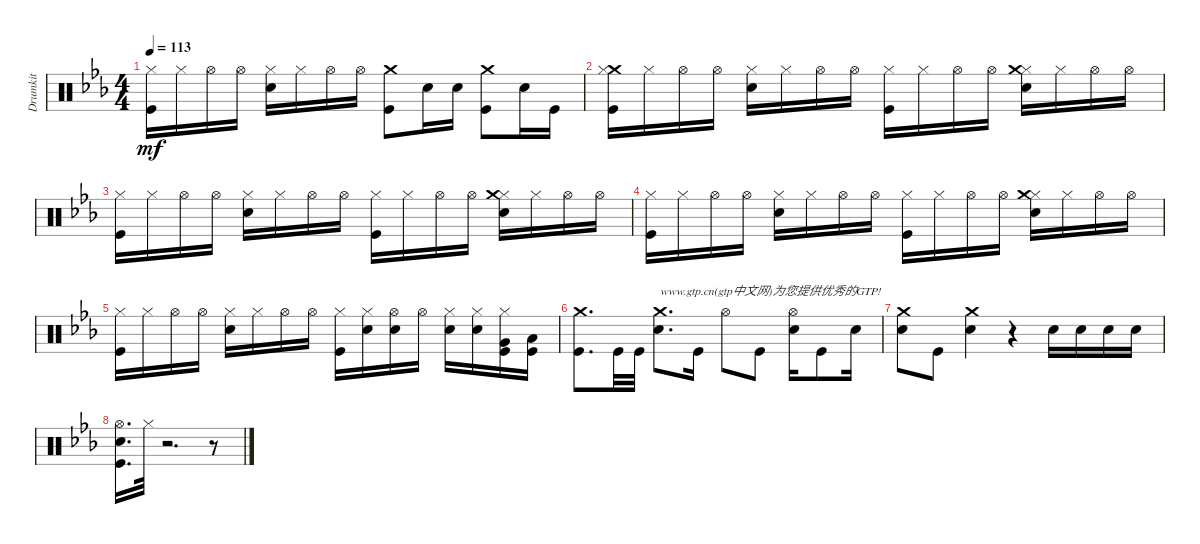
\track ("Drumkit" "Drumkit") {instrument percussion}
\staff {score}
\articulation defaults
\ts (4 4)
\tempo 113
\clef neutral
\ks eb
("Hi-Hat (closed)" "Kick (hit)").16{dy mf} "Hi-Hat (closed)".16 "Hi-Hat (open)".16 "Hi-Hat (open)".16 ("Hi-Hat (closed)" "Snare (hit) 2").16 "Hi-Hat (closed)".16 "Hi-Hat (open)".16 "Hi-Hat (open)".16 ("Kick (hit)" "Crash medium (hit)").8 "Snare (hit) 2".16 "Snare (hit) 2".16 ("Kick (hit)" "Crash medium (hit)").8 "Snare (hit) 2".16 "Kick (hit)".16 |
("Crash medium (hit)" "Hi-Hat (closed)" "Kick (hit)").16 "Hi-Hat (closed)".16 "Hi-Hat (open)".16 "Hi-Hat (open)".16 ("Hi-Hat (closed)" "Snare (hit) 2").16 "Hi-Hat (closed)".16 "Hi-Hat (open)".16 "Hi-Hat (open)".16 ("Hi-Hat (closed)" "Kick (hit)").16 "Hi-Hat (closed)".16 "Hi-Hat (open)".16 "Hi-Hat (open)".16 ("Hi-Hat (closed)" "Snare (hit) 2" "Crash medium (hit)").16 "Hi-Hat (closed)".16 "Hi-Hat (open)".16 "Hi-Hat (open)".16 |
("Hi-Hat (closed)" "Kick (hit)").16 "Hi-Hat (closed)".16 "Hi-Hat (open)".16 "Hi-Hat (open)".16 ("Hi-Hat (closed)" "Snare (hit) 2").16 "Hi-Hat (closed)".16 "Hi-Hat (open)".16 "Hi-Hat (open)".16 ("Hi-Hat (closed)" "Kick (hit)").16 "Hi-Hat (closed)".16 "Hi-Hat (open)".16 "Hi-Hat (open)".16 ("Hi-Hat (closed)" "Snare (hit) 2" "Crash medium (hit)").16 "Hi-Hat (closed)".16 "Hi-Hat (open)".16 "Hi-Hat (open)".16 |
("Hi-Hat (closed)" "Kick (hit)").16 "Hi-Hat (closed)".16 "Hi-Hat (open)".16 "Hi-Hat (open)".16 ("Hi-Hat (closed)" "Snare (hit) 2").16 "Hi-Hat (closed)".16 "Hi-Hat (open)".16 "Hi-Hat (open)".16 ("Hi-Hat (closed)" "Kick (hit)").16 "Hi-Hat (closed)".16 "Hi-Hat (open)".16 "Hi-Hat (open)".16 ("Hi-Hat (closed)" "Snare (hit) 2" "Crash medium (hit)").16 "Hi-Hat (closed)".16 "Hi-Hat (open)".16 "Hi-Hat (open)".16 |
("Hi-Hat (closed)" "Kick (hit)").16 "Hi-Hat (closed)".16 "Hi-Hat (open)".16 "Hi-Hat (open)".16 ("Hi-Hat (closed)" "Snare (hit) 2").16 "Hi-Hat (closed)".16 "Hi-Hat (open)".16 "Hi-Hat (open)".16 ("Hi-Hat (closed)" "Kick (hit)").16 ("Hi-Hat (closed)" "Snare (hit) 2").16 ("Hi-Hat (open)" "Snare (hit) 2").16 "Hi-Hat (open)".16 ("Hi-Hat (closed)" "Snare (hit) 2").16 ("Hi-Hat (closed)" "Snare (hit) 2").16 ("Hi-Hat (closed)" "Very Low Tom (hit)" "Kick (hit)").16 ("Low Floor Tom (hit)" "Kick (hit)").16 |
("Kick (hit)" "Crash medium (hit)").8{d} "Kick (hit)".32 "Kick (hit)".32 ("Snare (hit) 2" "Crash medium (hit)").8{d txt "www.gtp.cn(gtp中文网)为您提供优秀的GTP!"} "Kick (hit)".16 "Hi-Hat (open)".8 "Kick (hit)".8 ("Hi-Hat (open)" "Snare (hit) 2").16 "Kick (hit)".8 "Snare (hit) 2".16 |
("Snare (hit) 2" "Crash medium (hit)").8 "Kick (hit)".8 ("Snare (hit) 2" "Crash medium (hit)").4 r.4 "Snare (hit) 2".16 "Snare (hit) 2".16 "Snare (hit) 2".16 "Snare (hit) 2".16 |
("Snare (hit) 2" "Hi-Hat (open)" "Kick (hit)").16{d} "Hi-Hat (closed)".32 r.2{d} r.8
